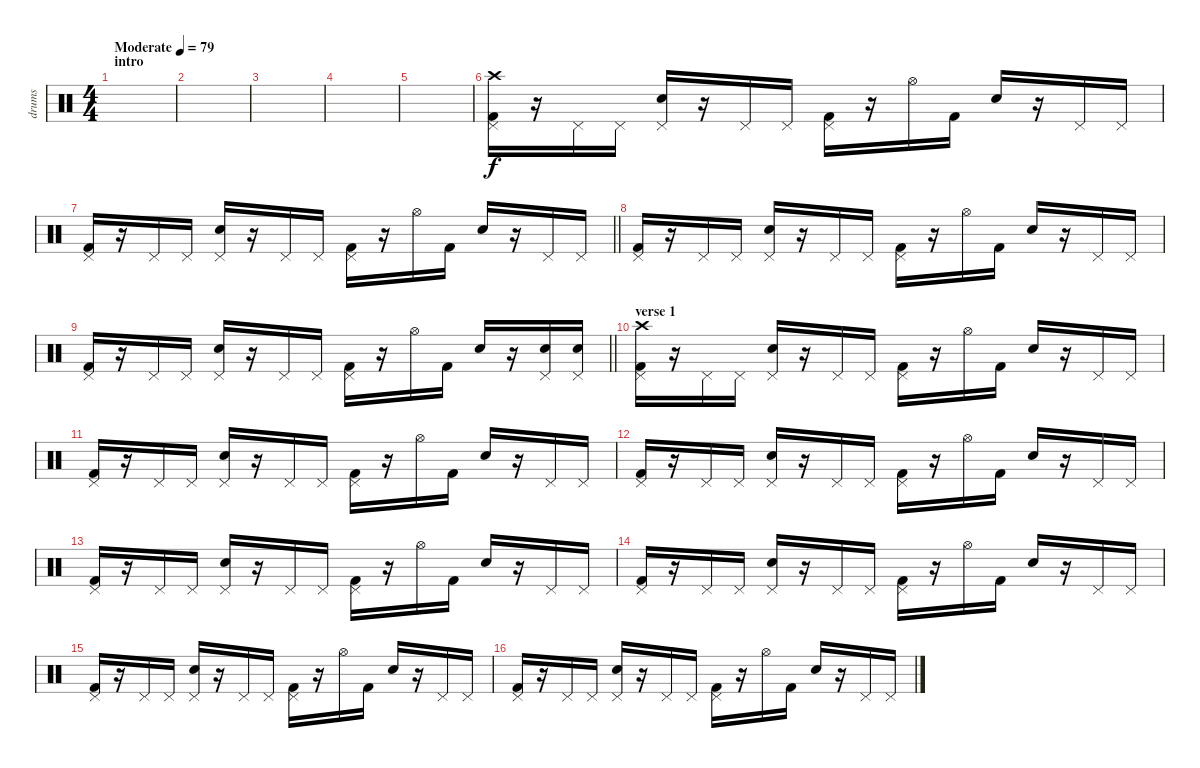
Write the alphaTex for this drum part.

\track ("drums" "drums") {instrument percussion}
\staff {score}
\articulation defaults
\ts (4 4)
\section ("" "intro")
\tempo (79 "Moderate")
\clef neutral
\ks c
|
|
|
|
|
("Kick (hit) 2" "Pedal Hi-Hat (hit)" "Crash high (hit)").16 r.16 "Pedal Hi-Hat (hit)".16 "Pedal Hi-Hat (hit)".16 ("Electric Snare (hit)" "Pedal Hi-Hat (hit)").16 r.16 "Pedal Hi-Hat (hit)".16 "Pedal Hi-Hat (hit)".16 ("Kick (hit) 2" "Pedal Hi-Hat (hit)").16 r.16 "Hi-Hat (open)".16 "Kick (hit) 2".16 "Electric Snare (hit)".16 r.16 "Pedal Hi-Hat (hit)".16 "Pedal Hi-Hat (hit)".16 |
\barLineRight lightlight
("Kick (hit) 2" "Pedal Hi-Hat (hit)").16 r.16 "Pedal Hi-Hat (hit)".16 "Pedal Hi-Hat (hit)".16 ("Electric Snare (hit)" "Pedal Hi-Hat (hit)").16 r.16 "Pedal Hi-Hat (hit)".16 "Pedal Hi-Hat (hit)".16 ("Kick (hit) 2" "Pedal Hi-Hat (hit)").16 r.16 "Hi-Hat (open)".16 "Kick (hit) 2".16 "Electric Snare (hit)".16 r.16 "Pedal Hi-Hat (hit)".16 "Pedal Hi-Hat (hit)".16 |
("Kick (hit) 2" "Pedal Hi-Hat (hit)").16 r.16 "Pedal Hi-Hat (hit)".16 "Pedal Hi-Hat (hit)".16 ("Electric Snare (hit)" "Pedal Hi-Hat (hit)").16 r.16 "Pedal Hi-Hat (hit)".16 "Pedal Hi-Hat (hit)".16 ("Kick (hit) 2" "Pedal Hi-Hat (hit)").16 r.16 "Hi-Hat (open)".16 "Kick (hit) 2".16 "Electric Snare (hit)".16 r.16 "Pedal Hi-Hat (hit)".16 "Pedal Hi-Hat (hit)".16 |
\barLineRight lightlight
("Kick (hit) 2" "Pedal Hi-Hat (hit)").16 r.16 "Pedal Hi-Hat (hit)".16 "Pedal Hi-Hat (hit)".16 ("Electric Snare (hit)" "Pedal Hi-Hat (hit)").16 r.16 "Pedal Hi-Hat (hit)".16 "Pedal Hi-Hat (hit)".16 ("Kick (hit) 2" "Pedal Hi-Hat (hit)").16 r.16 "Hi-Hat (open)".16 "Kick (hit) 2".16 "Electric Snare (hit)".16 r.16 ("Electric Snare (hit)" "Pedal Hi-Hat (hit)").16 ("Electric Snare (hit)" "Pedal Hi-Hat (hit)").16 |
\section ("" "verse 1")
("Kick (hit) 2" "Pedal Hi-Hat (hit)" "Crash high (hit)").16 r.16 "Pedal Hi-Hat (hit)".16 "Pedal Hi-Hat (hit)".16 ("Electric Snare (hit)" "Pedal Hi-Hat (hit)").16 r.16 "Pedal Hi-Hat (hit)".16 "Pedal Hi-Hat (hit)".16 ("Kick (hit) 2" "Pedal Hi-Hat (hit)").16 r.16 "Hi-Hat (open)".16 "Kick (hit) 2".16 "Electric Snare (hit)".16 r.16 "Pedal Hi-Hat (hit)".16 "Pedal Hi-Hat (hit)".16 |
("Kick (hit) 2" "Pedal Hi-Hat (hit)").16 r.16 "Pedal Hi-Hat (hit)".16 "Pedal Hi-Hat (hit)".16 ("Electric Snare (hit)" "Pedal Hi-Hat (hit)").16 r.16 "Pedal Hi-Hat (hit)".16 "Pedal Hi-Hat (hit)".16 ("Kick (hit) 2" "Pedal Hi-Hat (hit)").16 r.16 "Hi-Hat (open)".16 "Kick (hit) 2".16 "Electric Snare (hit)".16 r.16 "Pedal Hi-Hat (hit)".16 "Pedal Hi-Hat (hit)".16 |
("Kick (hit) 2" "Pedal Hi-Hat (hit)").16 r.16 "Pedal Hi-Hat (hit)".16 "Pedal Hi-Hat (hit)".16 ("Electric Snare (hit)" "Pedal Hi-Hat (hit)").16 r.16 "Pedal Hi-Hat (hit)".16 "Pedal Hi-Hat (hit)".16 ("Kick (hit) 2" "Pedal Hi-Hat (hit)").16 r.16 "Hi-Hat (open)".16 "Kick (hit) 2".16 "Electric Snare (hit)".16 r.16 "Pedal Hi-Hat (hit)".16 "Pedal Hi-Hat (hit)".16 |
("Kick (hit) 2" "Pedal Hi-Hat (hit)").16 r.16 "Pedal Hi-Hat (hit)".16 "Pedal Hi-Hat (hit)".16 ("Electric Snare (hit)" "Pedal Hi-Hat (hit)").16 r.16 "Pedal Hi-Hat (hit)".16 "Pedal Hi-Hat (hit)".16 ("Kick (hit) 2" "Pedal Hi-Hat (hit)").16 r.16 "Hi-Hat (open)".16 "Kick (hit) 2".16 "Electric Snare (hit)".16 r.16 "Pedal Hi-Hat (hit)".16 "Pedal Hi-Hat (hit)".16 |
("Kick (hit) 2" "Pedal Hi-Hat (hit)").16 r.16 "Pedal Hi-Hat (hit)".16 "Pedal Hi-Hat (hit)".16 ("Electric Snare (hit)" "Pedal Hi-Hat (hit)").16 r.16 "Pedal Hi-Hat (hit)".16 "Pedal Hi-Hat (hit)".16 ("Kick (hit) 2" "Pedal Hi-Hat (hit)").16 r.16 "Hi-Hat (open)".16 "Kick (hit) 2".16 "Electric Snare (hit)".16 r.16 "Pedal Hi-Hat (hit)".16 "Pedal Hi-Hat (hit)".16 |
("Kick (hit) 2" "Pedal Hi-Hat (hit)").16 r.16 "Pedal Hi-Hat (hit)".16 "Pedal Hi-Hat (hit)".16 ("Electric Snare (hit)" "Pedal Hi-Hat (hit)").16 r.16 "Pedal Hi-Hat (hit)".16 "Pedal Hi-Hat (hit)".16 ("Kick (hit) 2" "Pedal Hi-Hat (hit)").16 r.16 "Hi-Hat (open)".16 "Kick (hit) 2".16 "Electric Snare (hit)".16 r.16 "Pedal Hi-Hat (hit)".16 "Pedal Hi-Hat (hit)".16 |
("Kick (hit) 2" "Pedal Hi-Hat (hit)").16 r.16 "Pedal Hi-Hat (hit)".16 "Pedal Hi-Hat (hit)".16 ("Electric Snare (hit)" "Pedal Hi-Hat (hit)").16 r.16 "Pedal Hi-Hat (hit)".16 "Pedal Hi-Hat (hit)".16 ("Kick (hit) 2" "Pedal Hi-Hat (hit)").16 r.16 "Hi-Hat (open)".16 "Kick (hit) 2".16 "Electric Snare (hit)".16 r.16 "Pedal Hi-Hat (hit)".16 "Pedal Hi-Hat (hit)".16
